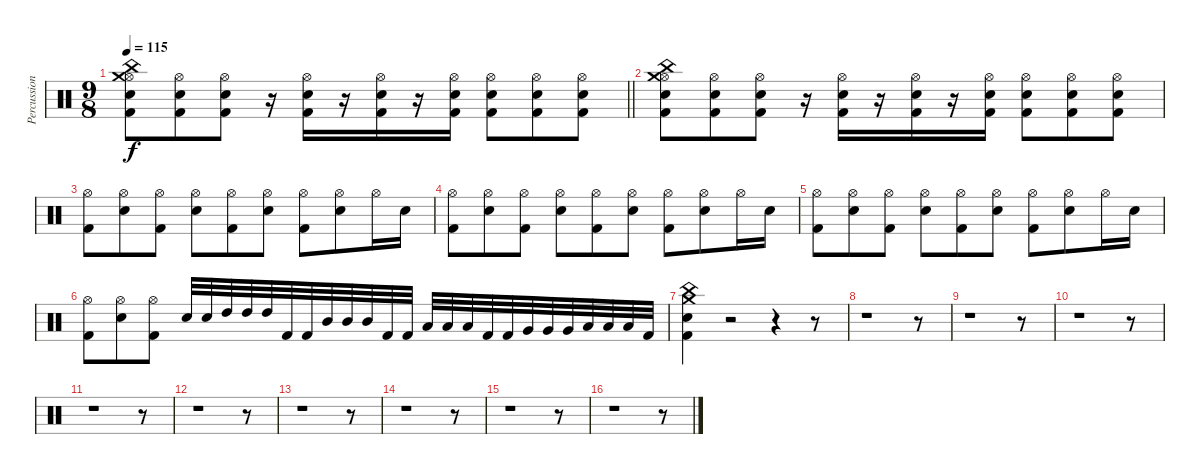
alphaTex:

\track ("Percussion" "Percussion") {instrument percussion}
\staff {score}
\articulation defaults
\ts (9 8)
\tempo 115
\clef neutral
\barLineRight lightlight
\ks c
("Hi-Hat (open)" "Crash medium (hit)" "Electric Snare (hit)" "China (hit)" "Kick (hit) 2").8{dy f} ("Hi-Hat (open)" "Electric Snare (hit)" "Kick (hit) 2").8 ("Hi-Hat (open)" "Electric Snare (hit)" "Kick (hit) 2").8 r.16 ("Hi-Hat (open)" "Electric Snare (hit)" "Kick (hit) 2").16 r.16 ("Hi-Hat (open)" "Electric Snare (hit)" "Kick (hit) 2").16 r.16 ("Hi-Hat (open)" "Electric Snare (hit)" "Kick (hit) 2").16 ("Hi-Hat (open)" "Electric Snare (hit)" "Kick (hit) 2").8 ("Hi-Hat (open)" "Electric Snare (hit)" "Kick (hit) 2").8 ("Hi-Hat (open)" "Electric Snare (hit)" "Kick (hit) 2").8 |
("Hi-Hat (open)" "Crash medium (hit)" "Electric Snare (hit)" "China (hit)" "Kick (hit) 2").8 ("Hi-Hat (open)" "Electric Snare (hit)" "Kick (hit) 2").8 ("Hi-Hat (open)" "Electric Snare (hit)" "Kick (hit) 2").8 r.16 ("Hi-Hat (open)" "Electric Snare (hit)" "Kick (hit) 2").16 r.16 ("Hi-Hat (open)" "Electric Snare (hit)" "Kick (hit) 2").16 r.16 ("Hi-Hat (open)" "Electric Snare (hit)" "Kick (hit) 2").16 ("Hi-Hat (open)" "Electric Snare (hit)" "Kick (hit) 2").8 ("Hi-Hat (open)" "Electric Snare (hit)" "Kick (hit) 2").8 ("Hi-Hat (open)" "Electric Snare (hit)" "Kick (hit) 2").8 |
("Hi-Hat (open)" "Kick (hit) 2").8 ("Hi-Hat (open)" "Electric Snare (hit)").8 ("Hi-Hat (open)" "Kick (hit) 2").8 ("Hi-Hat (open)" "Electric Snare (hit)").8 ("Hi-Hat (open)" "Kick (hit) 2").8 ("Hi-Hat (open)" "Electric Snare (hit)").8 ("Hi-Hat (open)" "Kick (hit) 2").8 ("Hi-Hat (open)" "Electric Snare (hit)").8 "Hi-Hat (open)".16 "Electric Snare (hit)".16 |
("Hi-Hat (open)" "Kick (hit) 2").8 ("Hi-Hat (open)" "Electric Snare (hit)").8 ("Hi-Hat (open)" "Kick (hit) 2").8 ("Hi-Hat (open)" "Electric Snare (hit)").8 ("Hi-Hat (open)" "Kick (hit) 2").8 ("Hi-Hat (open)" "Electric Snare (hit)").8 ("Hi-Hat (open)" "Kick (hit) 2").8 ("Hi-Hat (open)" "Electric Snare (hit)").8 "Hi-Hat (open)".16 "Electric Snare (hit)".16 |
("Hi-Hat (open)" "Kick (hit) 2").8 ("Hi-Hat (open)" "Electric Snare (hit)").8 ("Hi-Hat (open)" "Kick (hit) 2").8 ("Hi-Hat (open)" "Electric Snare (hit)").8 ("Hi-Hat (open)" "Kick (hit) 2").8 ("Hi-Hat (open)" "Electric Snare (hit)").8 ("Hi-Hat (open)" "Kick (hit) 2").8 ("Hi-Hat (open)" "Electric Snare (hit)").8 "Hi-Hat (open)".16 "Electric Snare (hit)".16 |
("Hi-Hat (open)" "Kick (hit) 2").8 ("Hi-Hat (open)" "Electric Snare (hit)").8 ("Hi-Hat (open)" "Kick (hit) 2").8 "Electric Snare (hit)".32 "Electric Snare (hit)".32 "High Tom (hit)".32 "High Tom (hit)".32 "High Tom (hit)".32 "Kick (hit) 2".32 "Kick (hit) 2".32 "Mid Tom (hit)".32 "Mid Tom (hit)".32 "Mid Tom (hit)".32 "Kick (hit) 2".32 "Kick (hit) 2".32 "Low Tom (hit)".32 "Low Tom (hit)".32 "Low Tom (hit)".32 "Kick (hit) 2".32 "Kick (hit) 2".32 "Very Low Tom (hit)".32 "Very Low Tom (hit)".32 "Very Low Tom (hit)".32 "Low Floor Tom (hit)".32 "Low Floor Tom (hit)".32 "Low Floor Tom (hit)".32 "Kick (hit) 2".32 |
("China (hit)" "Crash medium (hit)" "Electric Snare (hit)" "Kick (hit) 2").4 r.2 r.4 r.8 |
r.1 r.8 |
r.1 r.8 |
r.1 r.8 |
r.1 r.8 |
r.1 r.8 |
r.1 r.8 |
r.1 r.8 |
r.1 r.8 |
r.1 r.8
